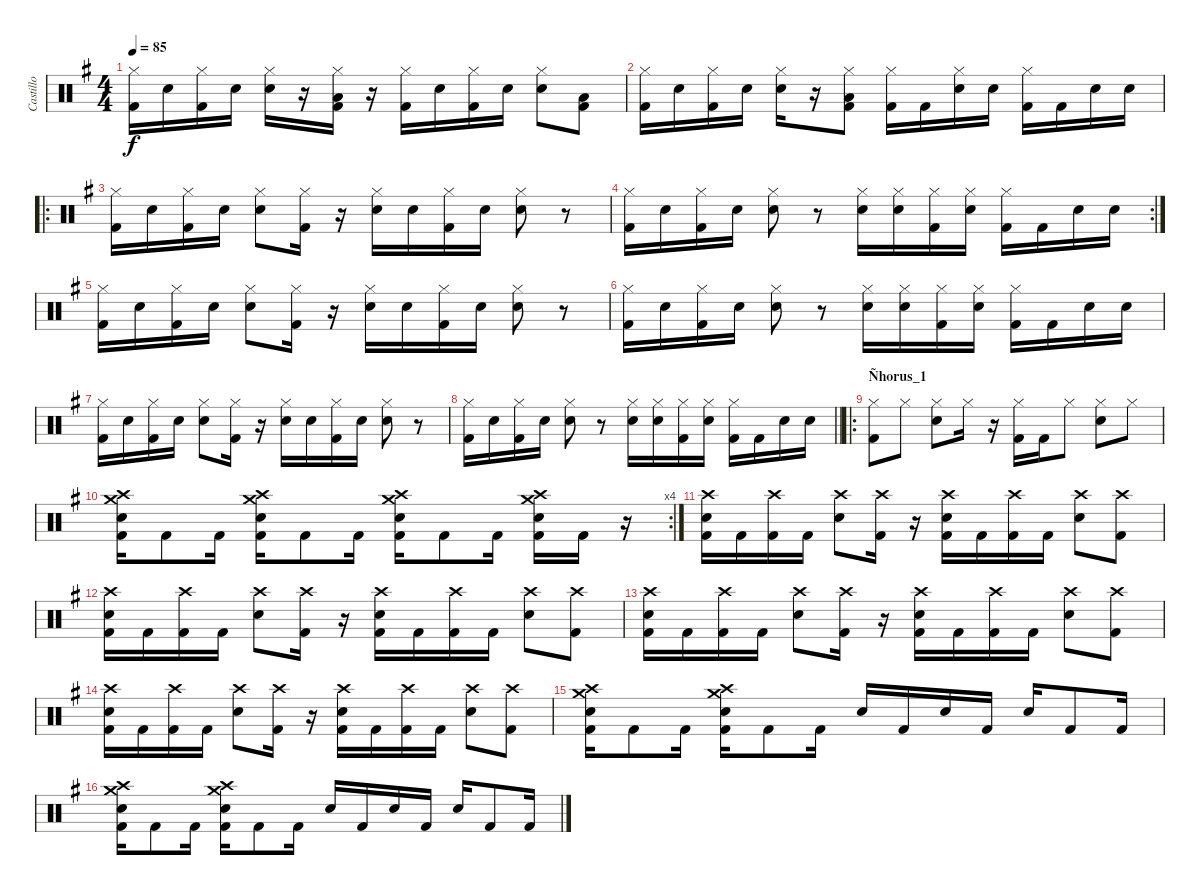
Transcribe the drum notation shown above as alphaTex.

\track ("Castillo" "Castillo") {instrument percussion}
\staff {score}
\articulation defaults
\ts (4 4)
\tempo 85
\clef neutral
\ks g
("Hi-Hat (closed)" "Kick (hit) 2").16{dy f} "Electric Snare (hit)".16 ("Hi-Hat (closed)" "Kick (hit) 2").16 "Electric Snare (hit)".16 ("Hi-Hat (closed)" "Electric Snare (hit)").16 r.16 ("Hi-Hat (closed)" "Kick (hit) 2" "Low Floor Tom (hit)").16 r.16 ("Hi-Hat (closed)" "Kick (hit) 2").16 "Electric Snare (hit)".16 ("Hi-Hat (closed)" "Kick (hit) 2").16 "Electric Snare (hit)".16 ("Hi-Hat (closed)" "Electric Snare (hit)").8 ("Kick (hit) 2" "Low Floor Tom (hit)").8 |
("Hi-Hat (closed)" "Kick (hit) 2").16 "Electric Snare (hit)".16 ("Hi-Hat (closed)" "Kick (hit) 2").16 "Electric Snare (hit)".16 ("Hi-Hat (closed)" "Electric Snare (hit)").16 r.16 ("Hi-Hat (closed)" "Kick (hit) 2" "Low Floor Tom (hit)").8 ("Hi-Hat (closed)" "Kick (hit) 2").16 "Kick (hit) 2".16 ("Hi-Hat (closed)" "Electric Snare (hit)").16 "Electric Snare (hit)".16 ("Hi-Hat (closed)" "Kick (hit) 2").16 "Kick (hit) 2".16 "Electric Snare (hit)".16 "Electric Snare (hit)".16 |
\ro
("Hi-Hat (closed)" "Kick (hit) 2").16 "Electric Snare (hit)".16 ("Hi-Hat (closed)" "Kick (hit) 2").16 "Electric Snare (hit)".16 ("Hi-Hat (closed)" "Electric Snare (hit)").8 ("Hi-Hat (closed)" "Kick (hit) 2").16 r.16 ("Hi-Hat (closed)" "Electric Snare (hit)").16 "Electric Snare (hit)".16 ("Hi-Hat (closed)" "Kick (hit) 2").16 "Electric Snare (hit)".16 ("Hi-Hat (closed)" "Electric Snare (hit)").8 r.8 |
\rc 2
("Hi-Hat (closed)" "Kick (hit) 2").16 "Electric Snare (hit)".16 ("Hi-Hat (closed)" "Kick (hit) 2").16 "Electric Snare (hit)".16 ("Hi-Hat (closed)" "Electric Snare (hit)").8 r.8 ("Hi-Hat (closed)" "Electric Snare (hit)").16 ("Hi-Hat (closed)" "Electric Snare (hit)").16 ("Hi-Hat (closed)" "Kick (hit) 2").16 ("Hi-Hat (closed)" "Electric Snare (hit)").16 ("Hi-Hat (closed)" "Kick (hit) 2").16 "Kick (hit) 2".16 "Electric Snare (hit)".16 "Electric Snare (hit)".16 |
("Hi-Hat (closed)" "Kick (hit) 2").16 "Electric Snare (hit)".16 ("Hi-Hat (closed)" "Kick (hit) 2").16 "Electric Snare (hit)".16 ("Hi-Hat (closed)" "Electric Snare (hit)").8 ("Hi-Hat (closed)" "Kick (hit) 2").16 r.16 ("Hi-Hat (closed)" "Electric Snare (hit)").16 "Electric Snare (hit)".16 ("Hi-Hat (closed)" "Kick (hit) 2").16 "Electric Snare (hit)".16 ("Hi-Hat (closed)" "Electric Snare (hit)").8 r.8 |
("Hi-Hat (closed)" "Kick (hit) 2").16 "Electric Snare (hit)".16 ("Hi-Hat (closed)" "Kick (hit) 2").16 "Electric Snare (hit)".16 ("Hi-Hat (closed)" "Electric Snare (hit)").8 r.8 ("Hi-Hat (closed)" "Electric Snare (hit)").16 ("Hi-Hat (closed)" "Electric Snare (hit)").16 ("Hi-Hat (closed)" "Kick (hit) 2").16 ("Hi-Hat (closed)" "Electric Snare (hit)").16 ("Hi-Hat (closed)" "Kick (hit) 2").16 "Kick (hit) 2".16 "Electric Snare (hit)".16 "Electric Snare (hit)".16 |
("Hi-Hat (closed)" "Kick (hit) 2").16 "Electric Snare (hit)".16 ("Hi-Hat (closed)" "Kick (hit) 2").16 "Electric Snare (hit)".16 ("Hi-Hat (closed)" "Electric Snare (hit)").8 ("Hi-Hat (closed)" "Kick (hit) 2").16 r.16 ("Hi-Hat (closed)" "Electric Snare (hit)").16 "Electric Snare (hit)".16 ("Hi-Hat (closed)" "Kick (hit) 2").16 "Electric Snare (hit)".16 ("Hi-Hat (closed)" "Electric Snare (hit)").8 r.8 |
\barLineRight lightlight
("Hi-Hat (closed)" "Kick (hit) 2").16 "Electric Snare (hit)".16 ("Hi-Hat (closed)" "Kick (hit) 2").16 "Electric Snare (hit)".16 ("Hi-Hat (closed)" "Electric Snare (hit)").8 r.8 ("Hi-Hat (closed)" "Electric Snare (hit)").16 ("Hi-Hat (closed)" "Electric Snare (hit)").16 ("Hi-Hat (closed)" "Kick (hit) 2").16 ("Hi-Hat (closed)" "Electric Snare (hit)").16 ("Hi-Hat (closed)" "Kick (hit) 2").16 "Kick (hit) 2".16 "Electric Snare (hit)".16 "Electric Snare (hit)".16 |
\ro
\section ("" "Ñhorus_1")
("Hi-Hat (closed)" "Kick (hit) 2").8 "Hi-Hat (closed)".8 ("Hi-Hat (closed)" "Electric Snare (hit)").8 "Hi-Hat (closed)".16 r.16 ("Hi-Hat (closed)" "Kick (hit) 2").16 "Kick (hit) 2".16 "Hi-Hat (closed)".8 ("Hi-Hat (closed)" "Electric Snare (hit)").8 "Hi-Hat (closed)".8 |
\rc 4
("Kick (hit) 2" "Electric Snare (hit)" "Crash high (hit)" "Crash medium (hit)").16 "Kick (hit) 2".8 "Kick (hit) 2".16 ("Kick (hit) 2" "Electric Snare (hit)" "Crash high (hit)" "Crash medium (hit)").16 "Kick (hit) 2".8 "Kick (hit) 2".16 ("Kick (hit) 2" "Electric Snare (hit)" "Crash high (hit)" "Crash medium (hit)").16 "Kick (hit) 2".8 "Kick (hit) 2".16 ("Kick (hit) 2" "Electric Snare (hit)" "Crash high (hit)" "Crash medium (hit)").16 "Kick (hit) 2".16 r.16 |
("Kick (hit) 2" "Electric Snare (hit)" "Crash high (hit)").16 "Kick (hit) 2".16 ("Kick (hit) 2" "Crash high (hit)").16 "Kick (hit) 2".16 ("Electric Snare (hit)" "Crash high (hit)").8 ("Kick (hit) 2" "Crash high (hit)").16 r.16 ("Kick (hit) 2" "Electric Snare (hit)" "Crash high (hit)").16 "Kick (hit) 2".16 ("Kick (hit) 2" "Crash high (hit)").16 "Kick (hit) 2".16 ("Electric Snare (hit)" "Crash high (hit)").8 ("Kick (hit) 2" "Crash high (hit)").8 |
("Kick (hit) 2" "Electric Snare (hit)" "Crash high (hit)").16 "Kick (hit) 2".16 ("Kick (hit) 2" "Crash high (hit)").16 "Kick (hit) 2".16 ("Electric Snare (hit)" "Crash high (hit)").8 ("Kick (hit) 2" "Crash high (hit)").16 r.16 ("Kick (hit) 2" "Electric Snare (hit)" "Crash high (hit)").16 "Kick (hit) 2".16 ("Kick (hit) 2" "Crash high (hit)").16 "Kick (hit) 2".16 ("Electric Snare (hit)" "Crash high (hit)").8 ("Kick (hit) 2" "Crash high (hit)").8 |
("Kick (hit) 2" "Electric Snare (hit)" "Crash high (hit)").16 "Kick (hit) 2".16 ("Kick (hit) 2" "Crash high (hit)").16 "Kick (hit) 2".16 ("Electric Snare (hit)" "Crash high (hit)").8 ("Kick (hit) 2" "Crash high (hit)").16 r.16 ("Kick (hit) 2" "Electric Snare (hit)" "Crash high (hit)").16 "Kick (hit) 2".16 ("Kick (hit) 2" "Crash high (hit)").16 "Kick (hit) 2".16 ("Electric Snare (hit)" "Crash high (hit)").8 ("Kick (hit) 2" "Crash high (hit)").8 |
("Kick (hit) 2" "Electric Snare (hit)" "Crash high (hit)").16 "Kick (hit) 2".16 ("Kick (hit) 2" "Crash high (hit)").16 "Kick (hit) 2".16 ("Electric Snare (hit)" "Crash high (hit)").8 ("Kick (hit) 2" "Crash high (hit)").16 r.16 ("Kick (hit) 2" "Electric Snare (hit)" "Crash high (hit)").16 "Kick (hit) 2".16 ("Kick (hit) 2" "Crash high (hit)").16 "Kick (hit) 2".16 ("Electric Snare (hit)" "Crash high (hit)").8 ("Kick (hit) 2" "Crash high (hit)").8 |
("Kick (hit) 2" "Electric Snare (hit)" "Crash high (hit)" "Crash medium (hit)").16 "Kick (hit) 2".8 "Kick (hit) 2".16 ("Kick (hit) 2" "Electric Snare (hit)" "Crash high (hit)" "Crash medium (hit)").16 "Kick (hit) 2".8 "Kick (hit) 2".16 "Electric Snare (hit)".16 "Kick (hit) 2".16 "Electric Snare (hit)".16 "Kick (hit) 2".16 "Electric Snare (hit)".16 "Kick (hit) 2".8 "Kick (hit) 2".16 |
("Kick (hit) 2" "Electric Snare (hit)" "Crash high (hit)" "Crash medium (hit)").16 "Kick (hit) 2".8 "Kick (hit) 2".16 ("Kick (hit) 2" "Electric Snare (hit)" "Crash high (hit)" "Crash medium (hit)").16 "Kick (hit) 2".8 "Kick (hit) 2".16 "Electric Snare (hit)".16 "Kick (hit) 2".16 "Electric Snare (hit)".16 "Kick (hit) 2".16 "Electric Snare (hit)".16 "Kick (hit) 2".8 "Kick (hit) 2".16
